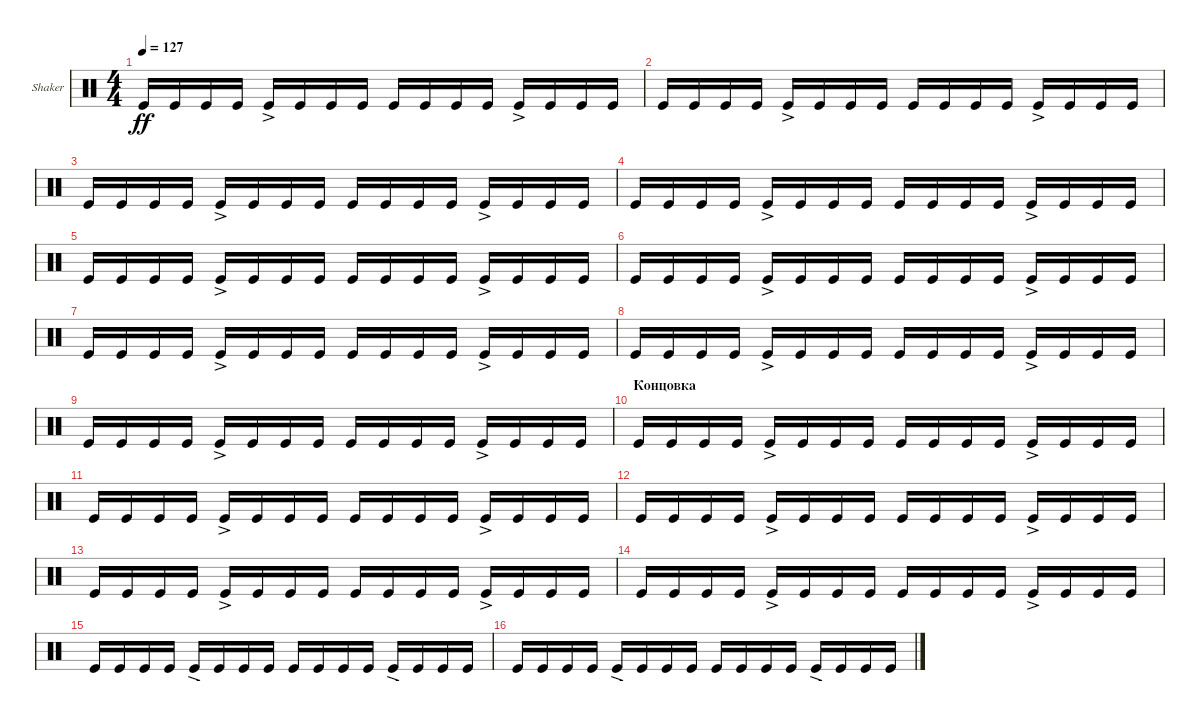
\defaultSystemsLayout 4
\bracketExtendMode groupsimilarinstruments
\firstSystemTrackNameOrientation horizontal
\otherSystemsTrackNameOrientation horizontal
\track ("Shaker" "Shaker") {instrument percussion}
\staff {score}
\articulation defaults
\ts (4 4)
\tempo 127
\clef neutral
\scale
0.333333
\ks c "Kick (hit)".16{dy ff} "Kick (hit)".16 "Kick (hit)".16 "Kick (hit)".16 "Kick (hit)"{ac}.16 "Kick (hit)".16 "Kick (hit)".16 "Kick (hit)".16 "Kick (hit)".16 "Kick (hit)".16 "Kick (hit)".16 "Kick (hit)".16 "Kick (hit)"{ac}.16 "Kick (hit)".16 "Kick (hit)".16 "Kick (hit)".16
|
\scale
0.333333 "Kick (hit)".16 "Kick (hit)".16 "Kick (hit)".16 "Kick (hit)".16 "Kick (hit)"{ac}.16 "Kick (hit)".16 "Kick (hit)".16 "Kick (hit)".16 "Kick (hit)".16 "Kick (hit)".16 "Kick (hit)".16 "Kick (hit)".16 "Kick (hit)"{ac}.16 "Kick (hit)".16 "Kick (hit)".16 "Kick (hit)".16 |
\scale
0.333333 "Kick (hit)".16 "Kick (hit)".16 "Kick (hit)".16 "Kick (hit)".16 "Kick (hit)"{ac}.16 "Kick (hit)".16 "Kick (hit)".16 "Kick (hit)".16 "Kick (hit)".16 "Kick (hit)".16 "Kick (hit)".16 "Kick (hit)".16 "Kick (hit)"{ac}.16 "Kick (hit)".16 "Kick (hit)".16 "Kick (hit)".16 |
\scale
0.333333 "Kick (hit)".16 "Kick (hit)".16 "Kick (hit)".16 "Kick (hit)".16 "Kick (hit)"{ac}.16 "Kick (hit)".16 "Kick (hit)".16 "Kick (hit)".16 "Kick (hit)".16 "Kick (hit)".16 "Kick (hit)".16 "Kick (hit)".16 "Kick (hit)"{ac}.16 "Kick (hit)".16 "Kick (hit)".16 "Kick (hit)".16 |
\scale
0.333333 "Kick (hit)".16 "Kick (hit)".16 "Kick (hit)".16 "Kick (hit)".16 "Kick (hit)"{ac}.16 "Kick (hit)".16 "Kick (hit)".16 "Kick (hit)".16 "Kick (hit)".16 "Kick (hit)".16 "Kick (hit)".16 "Kick (hit)".16 "Kick (hit)"{ac}.16 "Kick (hit)".16 "Kick (hit)".16 "Kick (hit)".16 |
\scale
0.333333 "Kick (hit)".16 "Kick (hit)".16 "Kick (hit)".16 "Kick (hit)".16 "Kick (hit)"{ac}.16 "Kick (hit)".16 "Kick (hit)".16 "Kick (hit)".16 "Kick (hit)".16 "Kick (hit)".16 "Kick (hit)".16 "Kick (hit)".16 "Kick (hit)"{ac}.16 "Kick (hit)".16 "Kick (hit)".16 "Kick (hit)".16 |
\scale
0.333333 "Kick (hit)".16 "Kick (hit)".16 "Kick (hit)".16 "Kick (hit)".16 "Kick (hit)"{ac}.16 "Kick (hit)".16 "Kick (hit)".16 "Kick (hit)".16 "Kick (hit)".16 "Kick (hit)".16 "Kick (hit)".16 "Kick (hit)".16 "Kick (hit)"{ac}.16 "Kick (hit)".16 "Kick (hit)".16 "Kick (hit)".16 |
\scale
0.333333 "Kick (hit)".16 "Kick (hit)".16 "Kick (hit)".16 "Kick (hit)".16 "Kick (hit)"{ac}.16 "Kick (hit)".16 "Kick (hit)".16 "Kick (hit)".16 "Kick (hit)".16 "Kick (hit)".16 "Kick (hit)".16 "Kick (hit)".16 "Kick (hit)"{ac}.16 "Kick (hit)".16 "Kick (hit)".16 "Kick (hit)".16 |
\scale
0.333333 "Kick (hit)".16 "Kick (hit)".16 "Kick (hit)".16 "Kick (hit)".16 "Kick (hit)"{ac}.16 "Kick (hit)".16 "Kick (hit)".16 "Kick (hit)".16 "Kick (hit)".16 "Kick (hit)".16 "Kick (hit)".16 "Kick (hit)".16 "Kick (hit)"{ac}.16 "Kick (hit)".16 "Kick (hit)".16 "Kick (hit)".16 |
\section ("" "Концовка")
\scale
0.333333 "Kick (hit)".16 "Kick (hit)".16 "Kick (hit)".16 "Kick (hit)".16 "Kick (hit)"{ac}.16 "Kick (hit)".16 "Kick (hit)".16 "Kick (hit)".16 "Kick (hit)".16 "Kick (hit)".16 "Kick (hit)".16 "Kick (hit)".16 "Kick (hit)"{ac}.16 "Kick (hit)".16 "Kick (hit)".16 "Kick (hit)".16 |
\scale
0.333333 "Kick (hit)".16 "Kick (hit)".16 "Kick (hit)".16 "Kick (hit)".16 "Kick (hit)"{ac}.16 "Kick (hit)".16 "Kick (hit)".16 "Kick (hit)".16 "Kick (hit)".16 "Kick (hit)".16 "Kick (hit)".16 "Kick (hit)".16 "Kick (hit)"{ac}.16 "Kick (hit)".16 "Kick (hit)".16 "Kick (hit)".16 |
"Kick (hit)".16 "Kick (hit)".16 "Kick (hit)".16 "Kick (hit)".16 "Kick (hit)"{ac}.16 "Kick (hit)".16 "Kick (hit)".16 "Kick (hit)".16 "Kick (hit)".16 "Kick (hit)".16 "Kick (hit)".16 "Kick (hit)".16 "Kick (hit)"{ac}.16 "Kick (hit)".16 "Kick (hit)".16 "Kick (hit)".16 |
"Kick (hit)".16 "Kick (hit)".16 "Kick (hit)".16 "Kick (hit)".16 "Kick (hit)"{ac}.16 "Kick (hit)".16 "Kick (hit)".16 "Kick (hit)".16 "Kick (hit)".16 "Kick (hit)".16 "Kick (hit)".16 "Kick (hit)".16 "Kick (hit)"{ac}.16 "Kick (hit)".16 "Kick (hit)".16 "Kick (hit)".16 |
"Kick (hit)".16 "Kick (hit)".16 "Kick (hit)".16 "Kick (hit)".16 "Kick (hit)"{ac}.16 "Kick (hit)".16 "Kick (hit)".16 "Kick (hit)".16 "Kick (hit)".16 "Kick (hit)".16 "Kick (hit)".16 "Kick (hit)".16 "Kick (hit)"{ac}.16 "Kick (hit)".16 "Kick (hit)".16 "Kick (hit)".16 |
"Kick (hit)".16 "Kick (hit)".16 "Kick (hit)".16 "Kick (hit)".16 "Kick (hit)"{ac}.16 "Kick (hit)".16 "Kick (hit)".16 "Kick (hit)".16 "Kick (hit)".16 "Kick (hit)".16 "Kick (hit)".16 "Kick (hit)".16 "Kick (hit)"{ac}.16 "Kick (hit)".16 "Kick (hit)".16 "Kick (hit)".16 |
"Kick (hit)".16 "Kick (hit)".16 "Kick (hit)".16 "Kick (hit)".16 "Kick (hit)"{ac}.16 "Kick (hit)".16 "Kick (hit)".16 "Kick (hit)".16 "Kick (hit)".16 "Kick (hit)".16 "Kick (hit)".16 "Kick (hit)".16 "Kick (hit)"{ac}.16 "Kick (hit)".16 "Kick (hit)".16 "Kick (hit)".16
